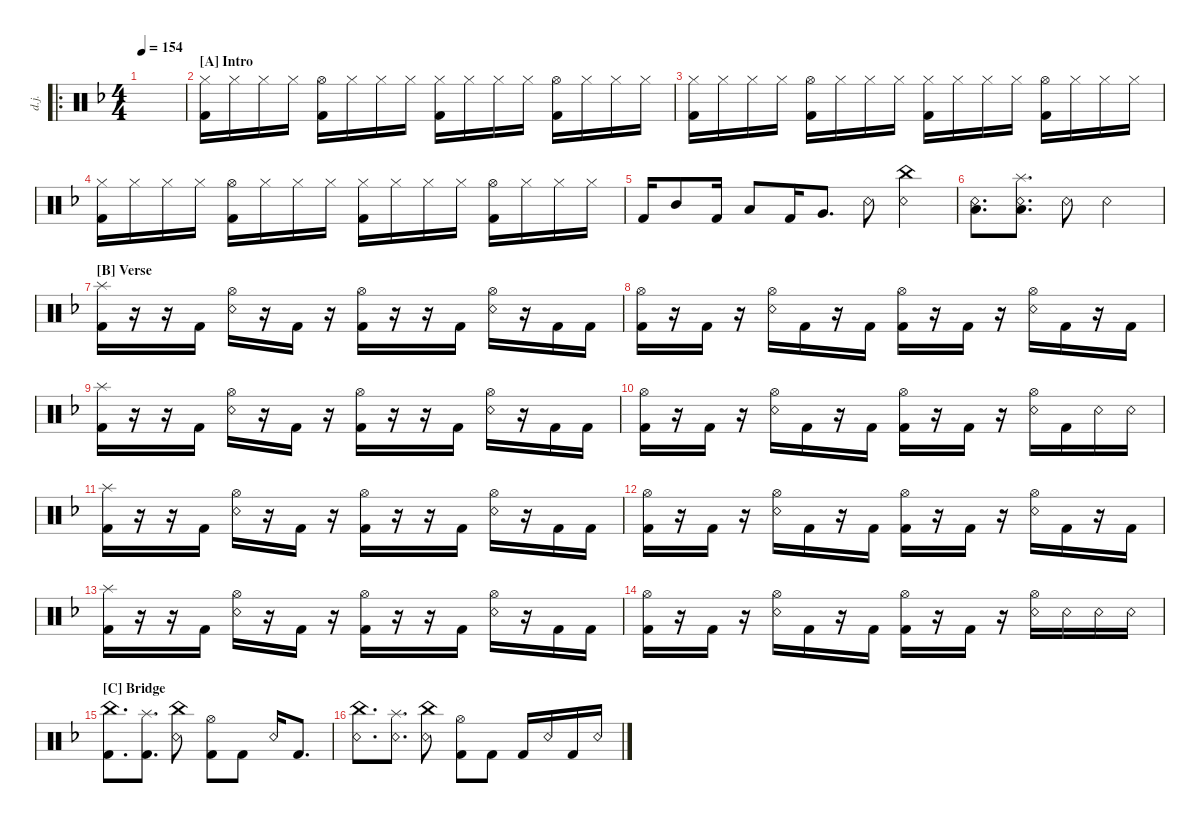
\defaultSystemsLayout 4
\hideDynamics
\bracketExtendMode nobrackets
\otherSystemsTrackNameOrientation horizontal
\track ("Drumkit Jason" "d.j.") {instrument percussion}
\staff {score}
\articulation defaults
\ro
\ts (4 4)
\tempo 154
\clef neutral
\ks dminor
|
\section ("A" "Intro")
("Hi-Hat (closed)"{acc forcenatural} "Kick (hit) 2"{acc forcenatural}).16{beam Down} "Hi-Hat (closed)"{acc forcenatural}.16{beam Down} "Hi-Hat (closed)"{acc forcenatural}.16{beam Down} "Hi-Hat (closed)"{acc forcenatural}.16{beam Down} ("Hi-Hat (open)"{acc forcenatural} "Kick (hit) 2"{acc forcenatural}).16{beam Down} "Hi-Hat (closed)"{acc forcenatural}.16{beam Down} "Hi-Hat (closed)"{acc forcenatural}.16{beam Down} "Hi-Hat (closed)"{acc forcenatural}.16{beam Down} ("Hi-Hat (closed)"{acc forcenatural} "Kick (hit) 2"{acc forcenatural}).16{beam Down} "Hi-Hat (closed)"{acc forcenatural}.16{beam Down} "Hi-Hat (closed)"{acc forcenatural}.16{beam Down} "Hi-Hat (closed)"{acc forcenatural}.16{beam Down} ("Hi-Hat (open)"{acc forcenatural} "Kick (hit) 2"{acc forcenatural}).16{beam Down} "Hi-Hat (closed)"{acc forcenatural}.16{beam Down} "Hi-Hat (closed)"{acc forcenatural}.16{beam Down} "Hi-Hat (closed)"{acc forcenatural}.16{beam Down} |
("Hi-Hat (closed)"{acc forcenatural} "Kick (hit) 2"{acc forcenatural}).16{beam Down} "Hi-Hat (closed)"{acc forcenatural}.16{beam Down} "Hi-Hat (closed)"{acc forcenatural}.16{beam Down} "Hi-Hat (closed)"{acc forcenatural}.16{beam Down} ("Hi-Hat (open)"{acc forcenatural} "Kick (hit) 2"{acc forcenatural}).16{beam Down} "Hi-Hat (closed)"{acc forcenatural}.16{beam Down} "Hi-Hat (closed)"{acc forcenatural}.16{beam Down} "Hi-Hat (closed)"{acc forcenatural}.16{beam Down} ("Hi-Hat (closed)"{acc forcenatural} "Kick (hit) 2"{acc forcenatural}).16{beam Down} "Hi-Hat (closed)"{acc forcenatural}.16{beam Down} "Hi-Hat (closed)"{acc forcenatural}.16{beam Down} "Hi-Hat (closed)"{acc forcenatural}.16{beam Down} ("Hi-Hat (open)"{acc forcenatural} "Kick (hit) 2"{acc forcenatural}).16{beam Down} "Hi-Hat (closed)"{acc forcenatural}.16{beam Down} "Hi-Hat (closed)"{acc forcenatural}.16{beam Down} "Hi-Hat (closed)"{acc forcenatural}.16{beam Down} |
("Hi-Hat (closed)"{acc forcenatural} "Kick (hit) 2"{acc forcenatural}).16{beam Down} "Hi-Hat (closed)"{acc forcenatural}.16{beam Down} "Hi-Hat (closed)"{acc forcenatural}.16{beam Down} "Hi-Hat (closed)"{acc forcenatural}.16{beam Down} ("Hi-Hat (open)"{acc forcenatural} "Kick (hit) 2"{acc forcenatural}).16{beam Down} "Hi-Hat (closed)"{acc forcenatural}.16{beam Down} "Hi-Hat (closed)"{acc forcenatural}.16{beam Down} "Hi-Hat (closed)"{acc forcenatural}.16{beam Down} ("Hi-Hat (closed)"{acc forcenatural} "Kick (hit) 2"{acc forcenatural}).16{beam Down} "Hi-Hat (closed)"{acc forcenatural}.16{beam Down} "Hi-Hat (closed)"{acc forcenatural}.16{beam Down} "Hi-Hat (closed)"{acc forcenatural}.16{beam Down} ("Hi-Hat (open)"{acc forcenatural} "Kick (hit) 2"{acc forcenatural}).16{beam Down} "Hi-Hat (closed)"{acc forcenatural}.16{beam Down} "Hi-Hat (closed)"{acc forcenatural}.16{beam Down} "Hi-Hat (closed)"{acc forcenatural}.16{beam Down} |
"Kick (hit) 2"{acc forcenatural}.16{beam Up} "Mid Tom (hit)"{acc forcenatural}.8{beam Up} "Kick (hit) 2"{acc forcenatural}.16{beam Up} "Low Tom (hit)"{acc forcenatural}.8{beam Up} "Kick (hit) 2"{acc forcenatural}.16{beam Up} "Very Low Tom (hit)"{acc forcenatural}.8{d beam Up} "Snare (rim shot)"{acc forcenatural}.8{beam Down} ("Snare (rim shot)"{acc forcenatural} "China (hit)"{acc forcenatural}).4{beam Down} |
("Snare (rim shot)"{acc forcenatural} "Low Tom (hit)"{acc forcenatural}).8{d beam Down} ("Low Tom (hit)"{acc forcenatural} "Snare (rim shot)"{acc forcenatural} "Splash (hit)"{acc forcenatural}).8{d beam Down} "Snare (rim shot)"{acc forcenatural}.8{beam Down} "Snare (rim shot)"{acc forcenatural}.2{beam Down} |
\section ("B" "Verse")
("Splash (hit)"{acc forcenatural} "Kick (hit) 2"{acc forcenatural}).16{beam Down} r.16{beam Down} r.16{beam Down} "Kick (hit) 2"{acc forcenatural}.16{beam Down} ("Hi-Hat (open)"{acc forcenatural} "Snare (rim shot)"{acc forcenatural}).16{beam Down} r.16{beam Down} "Kick (hit) 2"{acc forcenatural}.16{beam Down} r.16{beam Down} ("Hi-Hat (open)"{acc forcenatural} "Kick (hit) 2"{acc forcenatural}).16{beam Down} r.16{beam Down} r.16{beam Down} "Kick (hit) 2"{acc forcenatural}.16{beam Down} ("Hi-Hat (open)"{acc forcenatural} "Snare (rim shot)"{acc forcenatural}).16{beam Down} r.16{beam Down} "Kick (hit) 2"{acc forcenatural}.16{beam Down} "Kick (hit) 2"{acc forcenatural}.16{beam Down} |
("Kick (hit) 2"{acc forcenatural} "Hi-Hat (open)"{acc forcenatural}).16{beam Down} r.16{beam Down} "Kick (hit) 2"{acc forcenatural}.16{beam Down} r.16{beam Down} ("Hi-Hat (open)"{acc forcenatural} "Snare (rim shot)"{acc forcenatural}).16{beam Down} "Kick (hit) 2"{acc forcenatural}.16{beam Down} r.16{beam Down} "Kick (hit) 2"{acc forcenatural}.16{beam Down} ("Kick (hit) 2"{acc forcenatural} "Hi-Hat (open)"{acc forcenatural}).16{beam Down} r.16{beam Down} "Kick (hit) 2"{acc forcenatural}.16{beam Down} r.16{beam Down} ("Hi-Hat (open)"{acc forcenatural} "Snare (rim shot)"{acc forcenatural}).16{beam Down} "Kick (hit) 2"{acc forcenatural}.16{beam Down} r.16{beam Down} "Kick (hit) 2"{acc forcenatural}.16{beam Down} |
("Splash (hit)"{acc forcenatural} "Kick (hit) 2"{acc forcenatural}).16{beam Down} r.16{beam Down} r.16{beam Down} "Kick (hit) 2"{acc forcenatural}.16{beam Down} ("Hi-Hat (open)"{acc forcenatural} "Snare (rim shot)"{acc forcenatural}).16{beam Down} r.16{beam Down} "Kick (hit) 2"{acc forcenatural}.16{beam Down} r.16{beam Down} ("Hi-Hat (open)"{acc forcenatural} "Kick (hit) 2"{acc forcenatural}).16{beam Down} r.16{beam Down} r.16{beam Down} "Kick (hit) 2"{acc forcenatural}.16{beam Down} ("Hi-Hat (open)"{acc forcenatural} "Snare (rim shot)"{acc forcenatural}).16{beam Down} r.16{beam Down} "Kick (hit) 2"{acc forcenatural}.16{beam Down} "Kick (hit) 2"{acc forcenatural}.16{beam Down} |
("Kick (hit) 2"{acc forcenatural} "Hi-Hat (open)"{acc forcenatural}).16{beam Down} r.16{beam Down} "Kick (hit) 2"{acc forcenatural}.16{beam Down} r.16{beam Down} ("Hi-Hat (open)"{acc forcenatural} "Snare (rim shot)"{acc forcenatural}).16{beam Down} "Kick (hit) 2"{acc forcenatural}.16{beam Down} r.16{beam Down} "Kick (hit) 2"{acc forcenatural}.16{beam Down} ("Kick (hit) 2"{acc forcenatural} "Hi-Hat (open)"{acc forcenatural}).16{beam Down} r.16{beam Down} "Kick (hit) 2"{acc forcenatural}.16{beam Down} r.16{beam Down} ("Hi-Hat (open)"{acc forcenatural} "Snare (rim shot)"{acc forcenatural}).16{beam Down} "Kick (hit) 2"{acc forcenatural}.16{beam Down} "Snare (rim shot)"{acc forcenatural}.16{beam Down} "Snare (rim shot)"{acc forcenatural}.16{beam Down} |
("Splash (hit)"{acc forcenatural} "Kick (hit) 2"{acc forcenatural}).16{beam Down} r.16{beam Down} r.16{beam Down} "Kick (hit) 2"{acc forcenatural}.16{beam Down} ("Hi-Hat (open)"{acc forcenatural} "Snare (rim shot)"{acc forcenatural}).16{beam Down} r.16{beam Down} "Kick (hit) 2"{acc forcenatural}.16{beam Down} r.16{beam Down} ("Hi-Hat (open)"{acc forcenatural} "Kick (hit) 2"{acc forcenatural}).16{beam Down} r.16{beam Down} r.16{beam Down} "Kick (hit) 2"{acc forcenatural}.16{beam Down} ("Hi-Hat (open)"{acc forcenatural} "Snare (rim shot)"{acc forcenatural}).16{beam Down} r.16{beam Down} "Kick (hit) 2"{acc forcenatural}.16{beam Down} "Kick (hit) 2"{acc forcenatural}.16{beam Down} |
("Kick (hit) 2"{acc forcenatural} "Hi-Hat (open)"{acc forcenatural}).16{beam Down} r.16{beam Down} "Kick (hit) 2"{acc forcenatural}.16{beam Down} r.16{beam Down} ("Hi-Hat (open)"{acc forcenatural} "Snare (rim shot)"{acc forcenatural}).16{beam Down} "Kick (hit) 2"{acc forcenatural}.16{beam Down} r.16{beam Down} "Kick (hit) 2"{acc forcenatural}.16{beam Down} ("Kick (hit) 2"{acc forcenatural} "Hi-Hat (open)"{acc forcenatural}).16{beam Down} r.16{beam Down} "Kick (hit) 2"{acc forcenatural}.16{beam Down} r.16{beam Down} ("Hi-Hat (open)"{acc forcenatural} "Snare (rim shot)"{acc forcenatural}).16{beam Down} "Kick (hit) 2"{acc forcenatural}.16{beam Down} r.16{beam Down} "Kick (hit) 2"{acc forcenatural}.16{beam Down} |
("Splash (hit)"{acc forcenatural} "Kick (hit) 2"{acc forcenatural}).16{beam Down} r.16{beam Down} r.16{beam Down} "Kick (hit) 2"{acc forcenatural}.16{beam Down} ("Hi-Hat (open)"{acc forcenatural} "Snare (rim shot)"{acc forcenatural}).16{beam Down} r.16{beam Down} "Kick (hit) 2"{acc forcenatural}.16{beam Down} r.16{beam Down} ("Hi-Hat (open)"{acc forcenatural} "Kick (hit) 2"{acc forcenatural}).16{beam Down} r.16{beam Down} r.16{beam Down} "Kick (hit) 2"{acc forcenatural}.16{beam Down} ("Hi-Hat (open)"{acc forcenatural} "Snare (rim shot)"{acc forcenatural}).16{beam Down} r.16{beam Down} "Kick (hit) 2"{acc forcenatural}.16{beam Down} "Kick (hit) 2"{acc forcenatural}.16{beam Down} |
("Kick (hit) 2"{acc forcenatural} "Hi-Hat (open)"{acc forcenatural}).16{beam Down} r.16{beam Down} "Kick (hit) 2"{acc forcenatural}.16{beam Down} r.16{beam Down} ("Hi-Hat (open)"{acc forcenatural} "Snare (rim shot)"{acc forcenatural}).16{beam Down} "Kick (hit) 2"{acc forcenatural}.16{beam Down} r.16{beam Down} "Kick (hit) 2"{acc forcenatural}.16{beam Down} ("Kick (hit) 2"{acc forcenatural} "Hi-Hat (open)"{acc forcenatural}).16{beam Down} r.16{beam Down} "Kick (hit) 2"{acc forcenatural}.16{beam Down} r.16{beam Down} ("Hi-Hat (open)"{acc forcenatural} "Snare (rim shot)"{acc forcenatural}).16{beam Down} "Snare (rim shot)"{acc forcenatural}.16{beam Down} "Snare (rim shot)"{acc forcenatural}.16{beam Down} "Snare (rim shot)"{acc forcenatural}.16{beam Down} |
\section ("C" "Bridge")
("China (hit)"{acc forcenatural} "Kick (hit) 2"{acc forcenatural}).8{d beam Down} ("Splash (hit)"{acc forcenatural} "Kick (hit) 2"{acc forcenatural}).8{d beam Down} ("China (hit)"{acc forcenatural} "Snare (rim shot)"{acc forcenatural}).8{beam Down} ("Kick (hit) 2"{acc forcenatural} "Hi-Hat (open)"{acc forcenatural}).8{beam Down} "Kick (hit) 2"{acc forcenatural}.8{beam Down} "Snare (rim shot)"{acc forcenatural}.16{beam Up} "Kick (hit) 2"{acc forcenatural}.8{d beam Up} |
("China (hit)"{acc forcenatural} "Snare (rim shot)"{acc forcenatural}).8{d beam Down} ("Splash (hit)"{acc forcenatural} "Snare (rim shot)"{acc forcenatural}).8{d beam Down} ("China (hit)"{acc forcenatural} "Snare (rim shot)"{acc forcenatural}).8{beam Down} ("Kick (hit) 2"{acc forcenatural} "Hi-Hat (open)"{acc forcenatural}).8{beam Down} "Kick (hit) 2"{acc forcenatural}.8{beam Down} "Kick (hit) 2"{acc forcenatural}.16{beam Up} "Snare (rim shot)"{acc forcenatural}.16{beam Up} "Kick (hit) 2"{acc forcenatural}.16{beam Up} "Snare (rim shot)"{acc forcenatural}.16{beam Up}
